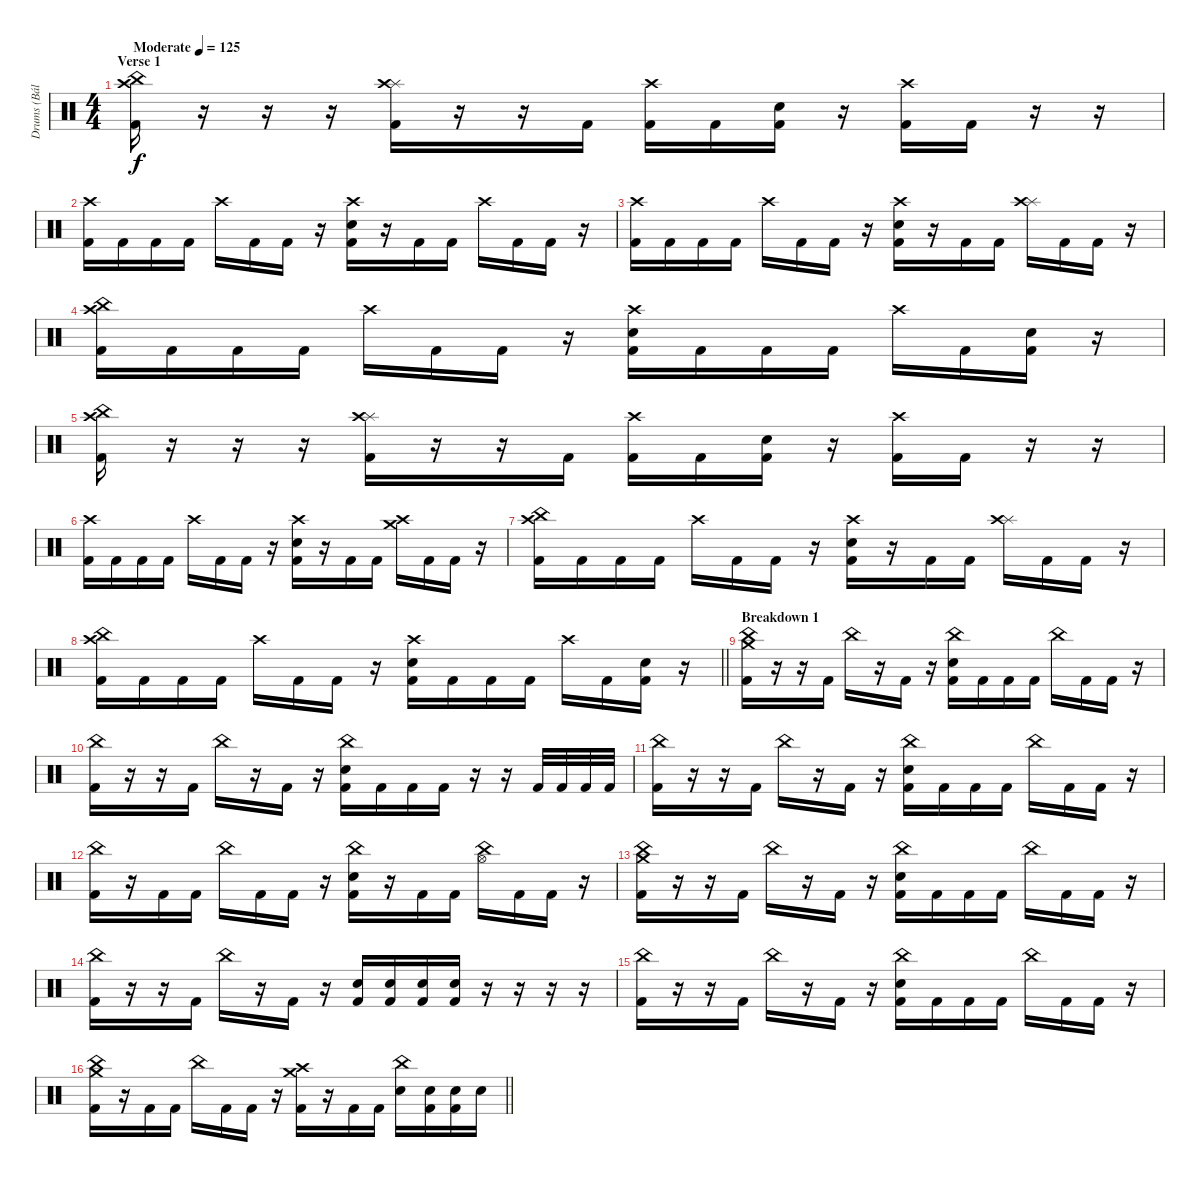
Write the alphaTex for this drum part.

\track ("Drums (Bálint)" "Drums (Bál") {instrument percussion}
\staff {score}
\articulation defaults
\ts (4 4)
\section ("" "Verse 1")
\tempo (125 "Moderate")
\clef neutral
\ks c
("China (hit)" "Crash high (hit)" "Kick (hit) 2").16{dy f} r.16 r.16 r.16 ("Splash (hit)" "Crash high (hit)" "Kick (hit) 2").16 r.16 r.16 "Kick (hit) 2".16 ("Crash high (hit)" "Kick (hit) 2").16 "Kick (hit) 2".16 ("Electric Snare (hit)" "Kick (hit) 2").16 r.16 ("Crash high (hit)" "Kick (hit) 2").16 "Kick (hit) 2".16 r.16 r.16 |
("Crash high (hit)" "Kick (hit) 2").16 "Kick (hit) 2".16 "Kick (hit) 2".16 "Kick (hit) 2".16 "Crash high (hit)".16 "Kick (hit) 2".16 "Kick (hit) 2".16 r.16 ("Crash high (hit)" "Electric Snare (hit)" "Kick (hit) 2").16 r.16 "Kick (hit) 2".16 "Kick (hit) 2".16 "Crash high (hit)".16 "Kick (hit) 2".16 "Kick (hit) 2".16 r.16 |
("Crash high (hit)" "Kick (hit) 2").16 "Kick (hit) 2".16 "Kick (hit) 2".16 "Kick (hit) 2".16 "Crash high (hit)".16 "Kick (hit) 2".16 "Kick (hit) 2".16 r.16 ("Crash high (hit)" "Electric Snare (hit)" "Kick (hit) 2").16 r.16 "Kick (hit) 2".16 "Kick (hit) 2".16 ("Splash (hit)" "Crash high (hit)").16 "Kick (hit) 2".16 "Kick (hit) 2".16 r.16 |
("China (hit)" "Crash high (hit)" "Kick (hit) 2").16 "Kick (hit) 2".16 "Kick (hit) 2".16 "Kick (hit) 2".16 "Crash high (hit)".16 "Kick (hit) 2".16 "Kick (hit) 2".16 r.16 ("Crash high (hit)" "Electric Snare (hit)" "Kick (hit) 2").16 "Kick (hit) 2".16 "Kick (hit) 2".16 "Kick (hit) 2".16 "Crash high (hit)".16 "Kick (hit) 2".16 ("Electric Snare (hit)" "Kick (hit) 2").16 r.16 |
("China (hit)" "Crash high (hit)" "Kick (hit) 2").16 r.16 r.16 r.16 ("Splash (hit)" "Crash high (hit)" "Kick (hit) 2").16 r.16 r.16 "Kick (hit) 2".16 ("Crash high (hit)" "Kick (hit) 2").16 "Kick (hit) 2".16 ("Electric Snare (hit)" "Kick (hit) 2").16 r.16 ("Crash high (hit)" "Kick (hit) 2").16 "Kick (hit) 2".16 r.16 r.16 |
("Crash high (hit)" "Kick (hit) 2").16 "Kick (hit) 2".16 "Kick (hit) 2".16 "Kick (hit) 2".16 "Crash high (hit)".16 "Kick (hit) 2".16 "Kick (hit) 2".16 r.16 ("Crash high (hit)" "Electric Snare (hit)" "Kick (hit) 2").16 r.16 "Kick (hit) 2".16 "Kick (hit) 2".16 ("Crash medium (hit)" "Crash high (hit)").16 "Kick (hit) 2".16 "Kick (hit) 2".16 r.16 |
("China (hit)" "Crash high (hit)" "Kick (hit) 2").16 "Kick (hit) 2".16 "Kick (hit) 2".16 "Kick (hit) 2".16 "Crash high (hit)".16 "Kick (hit) 2".16 "Kick (hit) 2".16 r.16 ("Crash high (hit)" "Electric Snare (hit)" "Kick (hit) 2").16 r.16 "Kick (hit) 2".16 "Kick (hit) 2".16 ("Splash (hit)" "Crash high (hit)").16 "Kick (hit) 2".16 "Kick (hit) 2".16 r.16 |
\barLineRight lightlight
("China (hit)" "Crash high (hit)" "Kick (hit) 2").16 "Kick (hit) 2".16 "Kick (hit) 2".16 "Kick (hit) 2".16 "Crash high (hit)".16 "Kick (hit) 2".16 "Kick (hit) 2".16 r.16 ("Crash high (hit)" "Electric Snare (hit)" "Kick (hit) 2").16 "Kick (hit) 2".16 "Kick (hit) 2".16 "Kick (hit) 2".16 "Crash high (hit)".16 "Kick (hit) 2".16 ("Electric Snare (hit)" "Kick (hit) 2").16 r.16 |
\section ("" "Breakdown 1")
("Crash medium (hit)" "China (hit)" "Kick (hit) 2").16 r.16 r.16 "Kick (hit) 2".16 "China (hit)".16 r.16 "Kick (hit) 2".16 r.16 ("China (hit)" "Electric Snare (hit)" "Kick (hit) 2").16 "Kick (hit) 2".16 "Kick (hit) 2".16 "Kick (hit) 2".16 "China (hit)".16 "Kick (hit) 2".16 "Kick (hit) 2".16 r.16 |
("China (hit)" "Kick (hit) 2").16 r.16 r.16 "Kick (hit) 2".16 "China (hit)".16 r.16 "Kick (hit) 2".16 r.16 ("China (hit)" "Electric Snare (hit)" "Kick (hit) 2").16 "Kick (hit) 2".16 "Kick (hit) 2".16 "Kick (hit) 2".16 r.16 r.16 "Kick (hit) 2".32 "Kick (hit) 2".32 "Kick (hit) 2".32 "Kick (hit) 2".32 |
("China (hit)" "Kick (hit) 2").16 r.16 r.16 "Kick (hit) 2".16 "China (hit)".16 r.16 "Kick (hit) 2".16 r.16 ("China (hit)" "Electric Snare (hit)" "Kick (hit) 2").16 "Kick (hit) 2".16 "Kick (hit) 2".16 "Kick (hit) 2".16 "China (hit)".16 "Kick (hit) 2".16 "Kick (hit) 2".16 r.16 |
("China (hit)" "Kick (hit) 2").16 r.16 "Kick (hit) 2".16 "Kick (hit) 2".16 "China (hit)".16 "Kick (hit) 2".16 "Kick (hit) 2".16 r.16 ("China (hit)" "Electric Snare (hit)" "Kick (hit) 2").16 r.16 "Kick (hit) 2".16 "Kick (hit) 2".16 ("Hi-Hat (open)" "China (hit)").16 "Kick (hit) 2".16 "Kick (hit) 2".16 r.16 |
("Crash medium (hit)" "China (hit)" "Kick (hit) 2").16 r.16 r.16 "Kick (hit) 2".16 "China (hit)".16 r.16 "Kick (hit) 2".16 r.16 ("China (hit)" "Electric Snare (hit)" "Kick (hit) 2").16 "Kick (hit) 2".16 "Kick (hit) 2".16 "Kick (hit) 2".16 "China (hit)".16 "Kick (hit) 2".16 "Kick (hit) 2".16 r.16 |
("China (hit)" "Kick (hit) 2").16 r.16 r.16 "Kick (hit) 2".16 "China (hit)".16 r.16 "Kick (hit) 2".16 r.16 ("Electric Snare (hit)" "Kick (hit) 2").16 ("Electric Snare (hit)" "Kick (hit) 2").16 ("Electric Snare (hit)" "Kick (hit) 2").16 ("Electric Snare (hit)" "Kick (hit) 2").16 r.16 r.16 r.16 r.16 |
("China (hit)" "Kick (hit) 2").16 r.16 r.16 "Kick (hit) 2".16 "China (hit)".16 r.16 "Kick (hit) 2".16 r.16 ("China (hit)" "Electric Snare (hit)" "Kick (hit) 2").16 "Kick (hit) 2".16 "Kick (hit) 2".16 "Kick (hit) 2".16 "China (hit)".16 "Kick (hit) 2".16 "Kick (hit) 2".16 r.16 |
\barLineRight lightlight
("Crash medium (hit)" "China (hit)" "Kick (hit) 2").16 r.16 "Kick (hit) 2".16 "Kick (hit) 2".16 "China (hit)".16 "Kick (hit) 2".16 "Kick (hit) 2".16 r.16 ("Crash high (hit)" "Crash medium (hit)" "Kick (hit) 2").16 r.16 "Kick (hit) 2".16 "Kick (hit) 2".16 ("China (hit)" "Electric Snare (hit)").16 ("Electric Snare (hit)" "Kick (hit) 2").16 ("Electric Snare (hit)" "Kick (hit) 2").16 "Electric Snare (hit)".16
